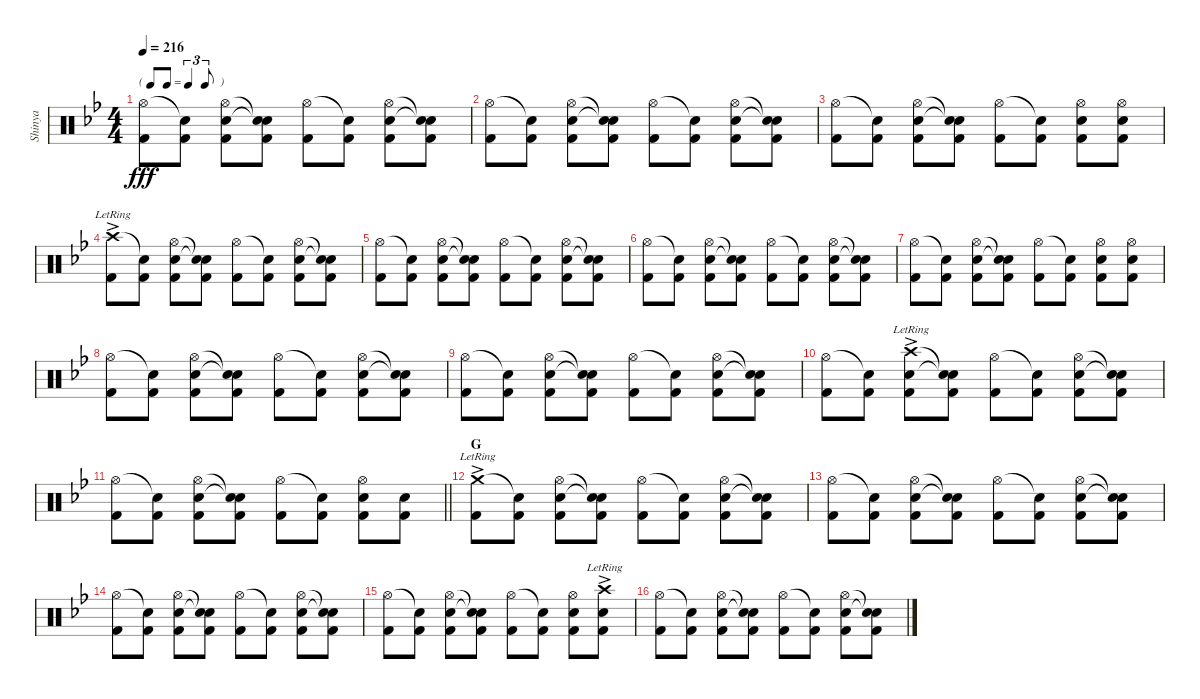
\track ("Shinya" "Shinya") {instrument percussion}
\staff {score}
\articulation defaults
\ts (4 4)
\tf triplet8th
\tempo 216
\clef neutral
\ks bb
("Hi-Hat (open)" "Kick (hit) 2").8{dy fff} ("Snare (hit)"{t} "Kick (hit) 2").8 ("Hi-Hat (open)" "Electric Snare (hit)" "Kick (hit) 2").8 ("Snare (hit)"{t} "Snare (hit)"{t} "Kick (hit) 2").8 ("Hi-Hat (open)" "Kick (hit) 2").8 ("Snare (hit)"{t} "Kick (hit) 2").8 ("Hi-Hat (open)" "Electric Snare (hit)" "Kick (hit) 2").8 ("Snare (hit)"{t} "Snare (hit)"{t} "Kick (hit) 2").8 |
("Hi-Hat (open)" "Kick (hit) 2").8 ("Snare (hit)"{t} "Kick (hit) 2").8 ("Hi-Hat (open)" "Electric Snare (hit)" "Kick (hit) 2").8 ("Snare (hit)"{t} "Snare (hit)"{t} "Kick (hit) 2").8 ("Hi-Hat (open)" "Kick (hit) 2").8 ("Snare (hit)"{t} "Kick (hit) 2").8 ("Hi-Hat (open)" "Electric Snare (hit)" "Kick (hit) 2").8 ("Snare (hit)"{t} "Snare (hit)"{t} "Kick (hit) 2").8 |
("Hi-Hat (open)" "Kick (hit) 2").8 ("Snare (hit)"{t} "Kick (hit) 2").8 ("Hi-Hat (open)" "Electric Snare (hit)" "Kick (hit) 2").8 ("Snare (hit)"{t} "Snare (hit)"{t} "Kick (hit) 2").8 ("Hi-Hat (open)" "Kick (hit) 2").8 ("Snare (hit)"{t} "Kick (hit) 2").8 ("Hi-Hat (open)" "Electric Snare (hit)" "Kick (hit) 2").8 ("Hi-Hat (open)" "Electric Snare (hit)" "Kick (hit) 2").8 |
("Crash high (hit)"{ac lr} "Kick (hit) 2").8 ("Snare (hit)"{t} "Kick (hit) 2").8 ("Hi-Hat (open)" "Electric Snare (hit)" "Kick (hit) 2").8 ("Snare (hit)"{t} "Snare (hit)"{t} "Kick (hit) 2").8 ("Hi-Hat (open)" "Kick (hit) 2").8 ("Snare (hit)"{t} "Kick (hit) 2").8 ("Hi-Hat (open)" "Electric Snare (hit)" "Kick (hit) 2").8 ("Snare (hit)"{t} "Snare (hit)"{t} "Kick (hit) 2").8 |
("Hi-Hat (open)" "Kick (hit) 2").8 ("Snare (hit)"{t} "Kick (hit) 2").8 ("Hi-Hat (open)" "Electric Snare (hit)" "Kick (hit) 2").8 ("Snare (hit)"{t} "Snare (hit)"{t} "Kick (hit) 2").8 ("Hi-Hat (open)" "Kick (hit) 2").8 ("Snare (hit)"{t} "Kick (hit) 2").8 ("Hi-Hat (open)" "Electric Snare (hit)" "Kick (hit) 2").8 ("Snare (hit)"{t} "Snare (hit)"{t} "Kick (hit) 2").8 |
("Hi-Hat (open)" "Kick (hit) 2").8 ("Snare (hit)"{t} "Kick (hit) 2").8 ("Hi-Hat (open)" "Electric Snare (hit)" "Kick (hit) 2").8 ("Snare (hit)"{t} "Snare (hit)"{t} "Kick (hit) 2").8 ("Hi-Hat (open)" "Kick (hit) 2").8 ("Snare (hit)"{t} "Kick (hit) 2").8 ("Hi-Hat (open)" "Electric Snare (hit)" "Kick (hit) 2").8 ("Snare (hit)"{t} "Snare (hit)"{t} "Kick (hit) 2").8 |
("Hi-Hat (open)" "Kick (hit) 2").8 ("Snare (hit)"{t} "Kick (hit) 2").8 ("Hi-Hat (open)" "Electric Snare (hit)" "Kick (hit) 2").8 ("Snare (hit)"{t} "Snare (hit)"{t} "Kick (hit) 2").8 ("Hi-Hat (open)" "Kick (hit) 2").8 ("Snare (hit)"{t} "Kick (hit) 2").8 ("Hi-Hat (open)" "Electric Snare (hit)" "Kick (hit) 2").8 ("Hi-Hat (open)" "Electric Snare (hit)" "Kick (hit) 2").8 |
("Hi-Hat (open)" "Kick (hit) 2").8 ("Snare (hit)"{t} "Kick (hit) 2").8 ("Hi-Hat (open)" "Electric Snare (hit)" "Kick (hit) 2").8 ("Snare (hit)"{t} "Snare (hit)"{t} "Kick (hit) 2").8 ("Hi-Hat (open)" "Kick (hit) 2").8 ("Snare (hit)"{t} "Kick (hit) 2").8 ("Hi-Hat (open)" "Electric Snare (hit)" "Kick (hit) 2").8 ("Snare (hit)"{t} "Snare (hit)"{t} "Kick (hit) 2").8 |
("Hi-Hat (open)" "Kick (hit) 2").8 ("Snare (hit)"{t} "Kick (hit) 2").8 ("Hi-Hat (open)" "Electric Snare (hit)" "Kick (hit) 2").8 ("Snare (hit)"{t} "Snare (hit)"{t} "Kick (hit) 2").8 ("Hi-Hat (open)" "Kick (hit) 2").8 ("Snare (hit)"{t} "Kick (hit) 2").8 ("Hi-Hat (open)" "Electric Snare (hit)" "Kick (hit) 2").8 ("Snare (hit)"{t} "Snare (hit)"{t} "Kick (hit) 2").8 |
("Hi-Hat (open)" "Kick (hit) 2").8 ("Snare (hit)"{t} "Kick (hit) 2").8 ("Crash high (hit)"{ac lr} "Electric Snare (hit)" "Kick (hit) 2").8 ("Snare (hit)"{t} "Snare (hit)"{t} "Kick (hit) 2").8 ("Hi-Hat (open)" "Kick (hit) 2").8 ("Snare (hit)"{t} "Kick (hit) 2").8 ("Hi-Hat (open)" "Electric Snare (hit)" "Kick (hit) 2").8 ("Snare (hit)"{t} "Snare (hit)"{t} "Kick (hit) 2").8 |
\barLineRight lightlight
("Hi-Hat (open)" "Kick (hit) 2").8 ("Snare (hit)"{t} "Kick (hit) 2").8 ("Hi-Hat (open)" "Electric Snare (hit)" "Kick (hit) 2").8 ("Snare (hit)"{t} "Snare (hit)"{t} "Kick (hit) 2").8 ("Hi-Hat (open)" "Kick (hit) 2").8 ("Snare (hit)"{t} "Kick (hit) 2").8 ("Hi-Hat (open)" "Electric Snare (hit)" "Kick (hit) 2").8 ("Electric Snare (hit)" "Kick (hit) 2").8 |
\section ("" "G")
("Crash medium (hit)"{ac lr} "Kick (hit) 2").8 ("Snare (hit)"{t} "Kick (hit) 2").8 ("Hi-Hat (open)" "Electric Snare (hit)" "Kick (hit) 2").8 ("Snare (hit)"{t} "Snare (hit)"{t} "Kick (hit) 2").8 ("Hi-Hat (open)" "Kick (hit) 2").8 ("Snare (hit)"{t} "Kick (hit) 2").8 ("Hi-Hat (open)" "Electric Snare (hit)" "Kick (hit) 2").8 ("Snare (hit)"{t} "Snare (hit)"{t} "Kick (hit) 2").8 |
("Hi-Hat (open)" "Kick (hit) 2").8 ("Snare (hit)"{t} "Kick (hit) 2").8 ("Hi-Hat (open)" "Electric Snare (hit)" "Kick (hit) 2").8 ("Snare (hit)"{t} "Snare (hit)"{t} "Kick (hit) 2").8 ("Hi-Hat (open)" "Kick (hit) 2").8 ("Snare (hit)"{t} "Kick (hit) 2").8 ("Hi-Hat (open)" "Electric Snare (hit)" "Kick (hit) 2").8 ("Snare (hit)"{t} "Snare (hit)"{t} "Kick (hit) 2").8 |
("Hi-Hat (open)" "Kick (hit) 2").8 ("Snare (hit)"{t} "Kick (hit) 2").8 ("Hi-Hat (open)" "Electric Snare (hit)" "Kick (hit) 2").8 ("Snare (hit)"{t} "Snare (hit)"{t} "Kick (hit) 2").8 ("Hi-Hat (open)" "Kick (hit) 2").8 ("Snare (hit)"{t} "Kick (hit) 2").8 ("Hi-Hat (open)" "Electric Snare (hit)" "Kick (hit) 2").8 ("Snare (hit)"{t} "Snare (hit)"{t} "Kick (hit) 2").8 |
("Hi-Hat (open)" "Kick (hit) 2").8 ("Snare (hit)"{t} "Kick (hit) 2").8 ("Hi-Hat (open)" "Electric Snare (hit)" "Kick (hit) 2").8 ("Snare (hit)"{t} "Snare (hit)"{t} "Kick (hit) 2").8 ("Hi-Hat (open)" "Kick (hit) 2").8 ("Snare (hit)"{t} "Kick (hit) 2").8 ("Hi-Hat (open)" "Electric Snare (hit)" "Kick (hit) 2").8 ("Crash high (hit)"{ac lr} "Electric Snare (hit)" "Kick (hit) 2").8 |
("Hi-Hat (open)" "Kick (hit) 2").8 ("Snare (hit)"{t} "Kick (hit) 2").8 ("Hi-Hat (open)" "Electric Snare (hit)" "Kick (hit) 2").8 ("Snare (hit)"{t} "Snare (hit)"{t} "Kick (hit) 2").8 ("Hi-Hat (open)" "Kick (hit) 2").8 ("Snare (hit)"{t} "Kick (hit) 2").8 ("Hi-Hat (open)" "Electric Snare (hit)" "Kick (hit) 2").8 ("Snare (hit)"{t} "Snare (hit)"{t} "Kick (hit) 2").8
